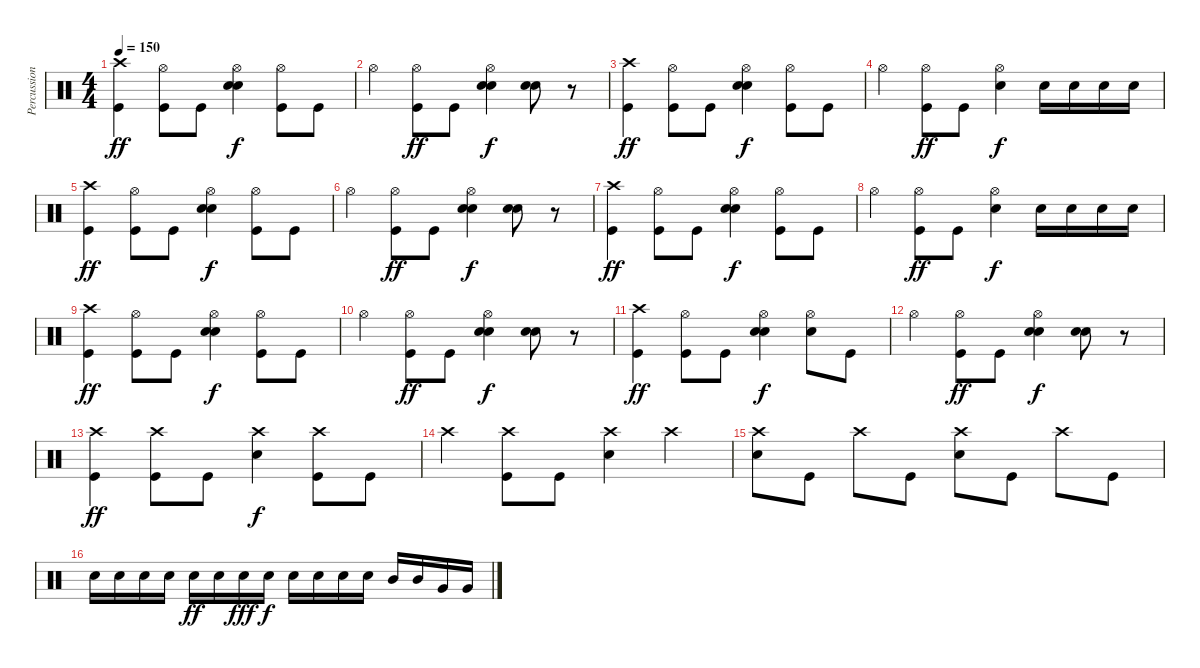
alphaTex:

\track ("Percussion" "Percussion") {instrument percussion}
\staff {score}
\articulation defaults
\ts (4 4)
\tempo 150
\clef neutral
\ks c
("Crash high (hit)" "Kick (hit)").4{dy ff} ("Hi-Hat (open)" "Kick (hit)").8 "Kick (hit)".8 ("Hi-Hat (open)" "Snare (hit) 2" "Snare (hit) 2").4{dy f} ("Hi-Hat (open)" "Kick (hit)").8 "Kick (hit)".8 |
"Hi-Hat (open)".4 ("Hi-Hat (open)" "Kick (hit)").8{dy ff} "Kick (hit)".8 ("Hi-Hat (open)" "Snare (hit) 2" "Snare (hit) 2").4{dy f} ("Snare (hit) 2" "Snare (hit) 2").8 r.8 |
("Crash high (hit)" "Kick (hit)").4{dy ff} ("Hi-Hat (open)" "Kick (hit)").8 "Kick (hit)".8 ("Hi-Hat (open)" "Snare (hit) 2" "Snare (hit) 2").4{dy f} ("Hi-Hat (open)" "Kick (hit)").8 "Kick (hit)".8 |
"Hi-Hat (open)".4 ("Hi-Hat (open)" "Kick (hit)").8{dy ff} "Kick (hit)".8 ("Hi-Hat (open)" "Snare (hit) 2").4{dy f} "Snare (hit) 2".16 "Snare (hit) 2".16 "Snare (hit) 2".16 "Snare (hit) 2".16 |
("Crash high (hit)" "Kick (hit)").4{dy ff} ("Hi-Hat (open)" "Kick (hit)").8 "Kick (hit)".8 ("Hi-Hat (open)" "Snare (hit) 2" "Snare (hit) 2").4{dy f} ("Hi-Hat (open)" "Kick (hit)").8 "Kick (hit)".8 |
"Hi-Hat (open)".4 ("Hi-Hat (open)" "Kick (hit)").8{dy ff} "Kick (hit)".8 ("Hi-Hat (open)" "Snare (hit) 2" "Snare (hit) 2").4{dy f} ("Snare (hit) 2" "Snare (hit) 2").8 r.8 |
("Crash high (hit)" "Kick (hit)").4{dy ff} ("Hi-Hat (open)" "Kick (hit)").8 "Kick (hit)".8 ("Hi-Hat (open)" "Snare (hit) 2" "Snare (hit) 2").4{dy f} ("Hi-Hat (open)" "Kick (hit)").8 "Kick (hit)".8 |
"Hi-Hat (open)".4 ("Hi-Hat (open)" "Kick (hit)").8{dy ff} "Kick (hit)".8 ("Hi-Hat (open)" "Snare (hit) 2").4{dy f} "Snare (hit) 2".16 "Snare (hit) 2".16 "Snare (hit) 2".16 "Snare (hit) 2".16 |
("Crash high (hit)" "Kick (hit)").4{dy ff} ("Hi-Hat (open)" "Kick (hit)").8 "Kick (hit)".8 ("Hi-Hat (open)" "Snare (hit) 2" "Snare (hit) 2").4{dy f} ("Hi-Hat (open)" "Kick (hit)").8 "Kick (hit)".8 |
"Hi-Hat (open)".4 ("Hi-Hat (open)" "Kick (hit)").8{dy ff} "Kick (hit)".8 ("Hi-Hat (open)" "Snare (hit) 2" "Snare (hit) 2").4{dy f} ("Snare (hit) 2" "Snare (hit) 2").8 r.8 |
("Crash high (hit)" "Kick (hit)").4{dy ff} ("Hi-Hat (open)" "Kick (hit)").8 "Kick (hit)".8 ("Hi-Hat (open)" "Snare (hit) 2" "Snare (hit) 2").4{dy f} ("Hi-Hat (open)" "Snare (hit) 2").8 "Kick (hit)".8 |
"Hi-Hat (open)".4 ("Hi-Hat (open)" "Kick (hit)").8{dy ff} "Kick (hit)".8 ("Hi-Hat (open)" "Snare (hit) 2" "Snare (hit) 2").4{dy f} ("Snare (hit) 2" "Snare (hit) 2").8 r.8 |
("Crash high (hit)" "Kick (hit)").4{dy ff} ("Crash high (hit)" "Kick (hit)").8 "Kick (hit)".8 ("Crash high (hit)" "Snare (hit) 2").4{dy f} ("Crash high (hit)" "Kick (hit)").8 "Kick (hit)".8 |
"Crash high (hit)".4 ("Crash high (hit)" "Kick (hit)").8 "Kick (hit)".8 ("Crash high (hit)" "Snare (hit) 2").4 "Crash high (hit)".4 |
("Crash high (hit)" "Snare (hit) 2").8 "Kick (hit)".8 "Crash high (hit)".8 "Kick (hit)".8 ("Crash high (hit)" "Snare (hit) 2").8 "Kick (hit)".8 "Crash high (hit)".8 "Kick (hit)".8 |
"Snare (hit) 2".16 "Snare (hit) 2".16 "Snare (hit) 2".16 "Snare (hit) 2".16 "Snare (hit) 2".16{dy ff} "Snare (hit) 2".16 "Snare (hit) 2".16{dy fff} "Snare (hit) 2".16{dy f} "Snare (hit) 2".16 "Snare (hit) 2".16 "Snare (hit) 2".16 "Snare (hit) 2".16 "Mid Tom (hit)".16 "Mid Tom (hit)".16 "Very Low Tom (hit)".16 "Very Low Tom (hit)".16
